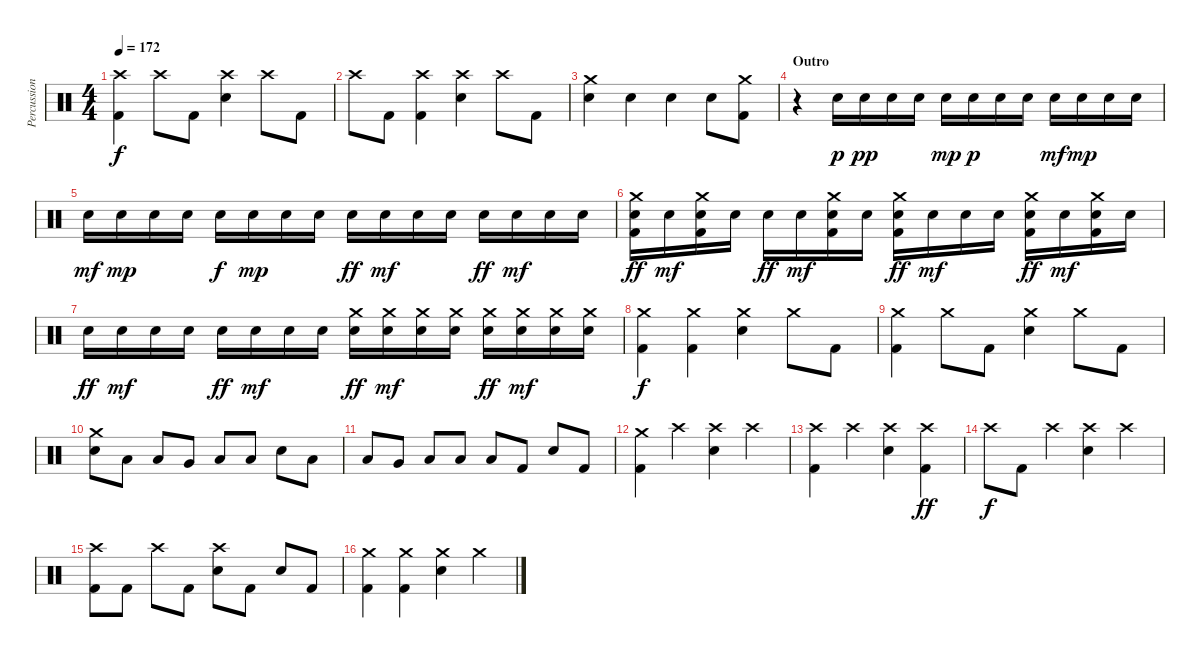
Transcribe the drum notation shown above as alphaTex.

\track ("Percussion" "Percussion") {instrument percussion}
\staff {score}
\articulation defaults
\ts (4 4)
\tempo 172
\clef neutral
\ks c
("Crash high (hit)" "Kick (hit) 2").4{dy f} "Crash high (hit)".8 "Kick (hit) 2".8 ("Crash high (hit)" "Electric Snare (hit)").4 "Crash high (hit)".8 "Kick (hit) 2".8 |
"Crash high (hit)".8 "Kick (hit) 2".8 ("Crash high (hit)" "Kick (hit) 2").4 ("Crash high (hit)" "Electric Snare (hit)").4 "Crash high (hit)".8 "Kick (hit) 2".8 |
("Crash medium (hit)" "Electric Snare (hit)").4 "Electric Snare (hit)".4 "Electric Snare (hit)".4 "Electric Snare (hit)".8 ("Crash medium (hit)" "Kick (hit) 2").8 |
\section ("" "Outro")
r.4 "Electric Snare (hit)".16{dy p} "Electric Snare (hit)".16{dy pp} "Electric Snare (hit)".16 "Electric Snare (hit)".16 "Electric Snare (hit)".16{dy mp} "Electric Snare (hit)".16{dy p} "Electric Snare (hit)".16 "Electric Snare (hit)".16 "Electric Snare (hit)".16{dy mf} "Electric Snare (hit)".16{dy mp} "Electric Snare (hit)".16 "Electric Snare (hit)".16 |
"Electric Snare (hit)".16{dy mf} "Electric Snare (hit)".16{dy mp} "Electric Snare (hit)".16 "Electric Snare (hit)".16 "Electric Snare (hit)".16{dy f} "Electric Snare (hit)".16{dy mp} "Electric Snare (hit)".16 "Electric Snare (hit)".16 "Electric Snare (hit)".16{dy ff} "Electric Snare (hit)".16{dy mf} "Electric Snare (hit)".16 "Electric Snare (hit)".16 "Electric Snare (hit)".16{dy ff} "Electric Snare (hit)".16{dy mf} "Electric Snare (hit)".16 "Electric Snare (hit)".16 |
("Crash medium (hit)" "Electric Snare (hit)" "Kick (hit) 2").16{dy ff} "Electric Snare (hit)".16{dy mf} ("Crash medium (hit)" "Electric Snare (hit)" "Kick (hit) 2").16 "Electric Snare (hit)".16 "Electric Snare (hit)".16{dy ff} "Electric Snare (hit)".16{dy mf} ("Crash medium (hit)" "Electric Snare (hit)" "Kick (hit) 2").16 "Electric Snare (hit)".16 ("Crash medium (hit)" "Electric Snare (hit)" "Kick (hit) 2").16{dy ff} "Electric Snare (hit)".16{dy mf} "Electric Snare (hit)".16 "Electric Snare (hit)".16 ("Crash medium (hit)" "Electric Snare (hit)" "Kick (hit) 2").16{dy ff} "Electric Snare (hit)".16{dy mf} ("Crash medium (hit)" "Electric Snare (hit)" "Kick (hit) 2").16 "Electric Snare (hit)".16 |
"Electric Snare (hit)".16{dy ff} "Electric Snare (hit)".16{dy mf} "Electric Snare (hit)".16 "Electric Snare (hit)".16 "Electric Snare (hit)".16{dy ff} "Electric Snare (hit)".16{dy mf} "Electric Snare (hit)".16 "Electric Snare (hit)".16 ("Crash medium (hit)" "Electric Snare (hit)").16{dy ff} ("Crash medium (hit)" "Electric Snare (hit)").16{dy mf} ("Crash medium (hit)" "Electric Snare (hit)").16 ("Crash medium (hit)" "Electric Snare (hit)").16 ("Crash medium (hit)" "Electric Snare (hit)").16{dy ff} ("Crash medium (hit)" "Electric Snare (hit)").16{dy mf} ("Crash medium (hit)" "Electric Snare (hit)").16 ("Crash medium (hit)" "Electric Snare (hit)").16 |
("Crash medium (hit)" "Kick (hit) 2").4{dy f} ("Crash medium (hit)" "Kick (hit) 2").4 ("Crash medium (hit)" "Electric Snare (hit)").4 "Crash medium (hit)".8 "Kick (hit) 2".8 |
("Crash medium (hit)" "Kick (hit) 2").4 "Crash medium (hit)".8 "Kick (hit) 2".8 ("Crash medium (hit)" "Electric Snare (hit)").4 "Crash medium (hit)".8 "Kick (hit) 2".8 |
("Crash medium (hit)" "Electric Snare (hit)").8 "Low Floor Tom (hit)".8 "Low Tom (hit)".8 "Very Low Tom (hit)".8 "Low Floor Tom (hit)".8 "Low Floor Tom (hit)".8 "Electric Snare (hit)".8 "Low Floor Tom (hit)".8 |
"Low Tom (hit)".8 "Very Low Tom (hit)".8 "Low Floor Tom (hit)".8 "Low Floor Tom (hit)".8 "Low Tom (hit)".8 "Kick (hit) 2".8 "Electric Snare (hit)".8 "Kick (hit) 2".8 |
("Crash medium (hit)" "Kick (hit) 2").4 "Crash high (hit)".4 ("Crash high (hit)" "Electric Snare (hit)").4 "Crash high (hit)".4 |
("Crash high (hit)" "Kick (hit) 2").4 "Crash high (hit)".4 ("Crash high (hit)" "Electric Snare (hit)").4 ("Crash high (hit)" "Kick (hit) 2").4{dy ff} |
"Crash high (hit)".8{dy f} "Kick (hit) 2".8 "Crash high (hit)".4 ("Crash high (hit)" "Electric Snare (hit)").4 "Crash high (hit)".4 |
("Crash high (hit)" "Kick (hit) 2").8 "Kick (hit) 2".8 "Crash high (hit)".8 "Kick (hit) 2".8 ("Crash high (hit)" "Electric Snare (hit)").8 "Kick (hit) 2".8 "Electric Snare (hit)".8 "Kick (hit) 2".8 |
("Crash medium (hit)" "Kick (hit) 2").4 ("Crash medium (hit)" "Kick (hit) 2").4 ("Crash medium (hit)" "Electric Snare (hit)").4 "Crash medium (hit)".4
